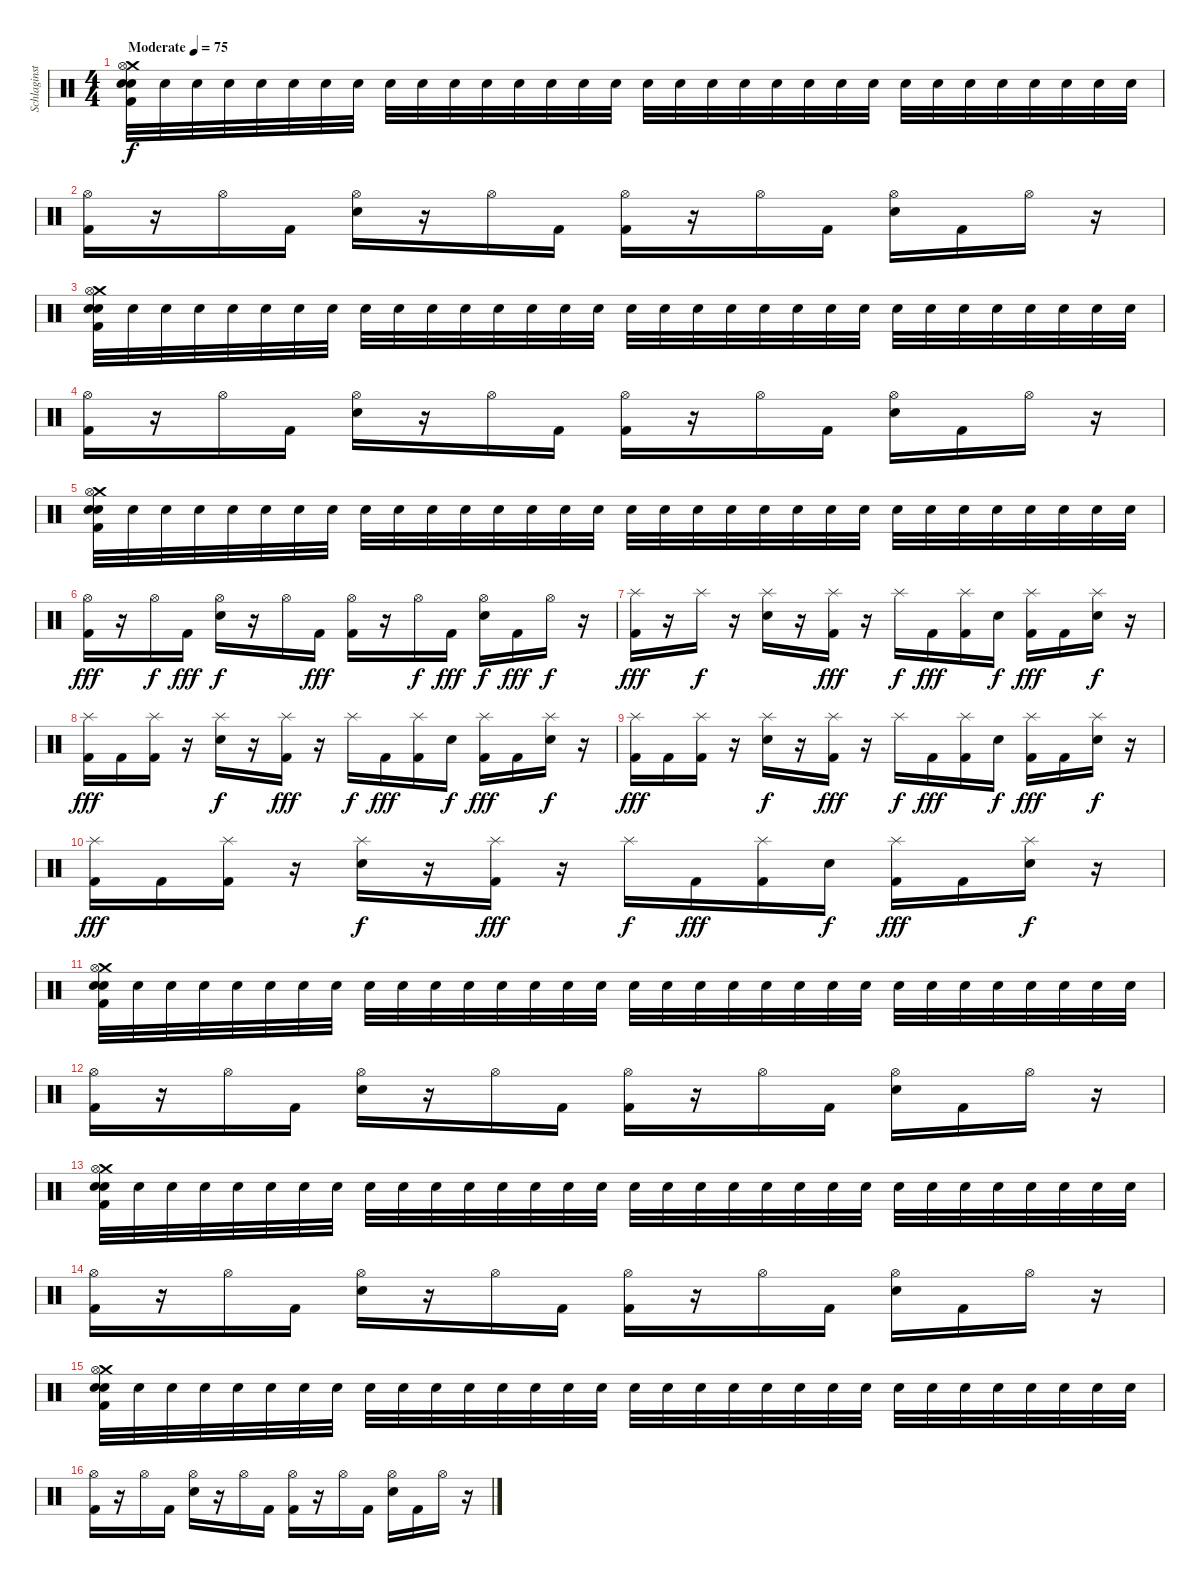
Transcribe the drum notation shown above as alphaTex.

\track ("Schlaginstrumente - Auswahl" "Schlaginst") {instrument percussion}
\staff {score}
\articulation defaults
\ts (4 4)
\tempo (75 "Moderate")
\clef neutral
\ks c
("Crash medium (hit)" "Hi-Hat (open)" "Electric Snare (hit)" "Kick (hit) 2" "Electric Snare (hit)").32{dy f} "Electric Snare (hit)".32 "Electric Snare (hit)".32 "Electric Snare (hit)".32 "Electric Snare (hit)".32 "Electric Snare (hit)".32 "Electric Snare (hit)".32 "Electric Snare (hit)".32 "Electric Snare (hit)".32 "Electric Snare (hit)".32 "Electric Snare (hit)".32 "Electric Snare (hit)".32 "Electric Snare (hit)".32 "Electric Snare (hit)".32 "Electric Snare (hit)".32 "Electric Snare (hit)".32 "Electric Snare (hit)".32 "Electric Snare (hit)".32 "Electric Snare (hit)".32 "Electric Snare (hit)".32 "Electric Snare (hit)".32 "Electric Snare (hit)".32 "Electric Snare (hit)".32 "Electric Snare (hit)".32 "Electric Snare (hit)".32 "Electric Snare (hit)".32 "Electric Snare (hit)".32 "Electric Snare (hit)".32 "Electric Snare (hit)".32 "Electric Snare (hit)".32 "Electric Snare (hit)".32 "Electric Snare (hit)".32 |
("Hi-Hat (open)" "Kick (hit) 2").16 r.16 "Hi-Hat (open)".16 "Kick (hit) 2".16 ("Hi-Hat (open)" "Electric Snare (hit)").16 r.16 "Hi-Hat (open)".16 "Kick (hit) 2".16 ("Hi-Hat (open)" "Kick (hit) 2").16 r.16 "Hi-Hat (open)".16 "Kick (hit) 2".16 ("Hi-Hat (open)" "Electric Snare (hit)").16 "Kick (hit) 2".16 "Hi-Hat (open)".16 r.16 |
("Crash medium (hit)" "Hi-Hat (open)" "Electric Snare (hit)" "Kick (hit) 2" "Electric Snare (hit)").32 "Electric Snare (hit)".32 "Electric Snare (hit)".32 "Electric Snare (hit)".32 "Electric Snare (hit)".32 "Electric Snare (hit)".32 "Electric Snare (hit)".32 "Electric Snare (hit)".32 "Electric Snare (hit)".32 "Electric Snare (hit)".32 "Electric Snare (hit)".32 "Electric Snare (hit)".32 "Electric Snare (hit)".32 "Electric Snare (hit)".32 "Electric Snare (hit)".32 "Electric Snare (hit)".32 "Electric Snare (hit)".32 "Electric Snare (hit)".32 "Electric Snare (hit)".32 "Electric Snare (hit)".32 "Electric Snare (hit)".32 "Electric Snare (hit)".32 "Electric Snare (hit)".32 "Electric Snare (hit)".32 "Electric Snare (hit)".32 "Electric Snare (hit)".32 "Electric Snare (hit)".32 "Electric Snare (hit)".32 "Electric Snare (hit)".32 "Electric Snare (hit)".32 "Electric Snare (hit)".32 "Electric Snare (hit)".32 |
("Hi-Hat (open)" "Kick (hit) 2").16 r.16 "Hi-Hat (open)".16 "Kick (hit) 2".16 ("Hi-Hat (open)" "Electric Snare (hit)").16 r.16 "Hi-Hat (open)".16 "Kick (hit) 2".16 ("Hi-Hat (open)" "Kick (hit) 2").16 r.16 "Hi-Hat (open)".16 "Kick (hit) 2".16 ("Hi-Hat (open)" "Electric Snare (hit)").16 "Kick (hit) 2".16 "Hi-Hat (open)".16 r.16 |
("Crash medium (hit)" "Hi-Hat (open)" "Electric Snare (hit)" "Kick (hit) 2" "Electric Snare (hit)").32 "Electric Snare (hit)".32 "Electric Snare (hit)".32 "Electric Snare (hit)".32 "Electric Snare (hit)".32 "Electric Snare (hit)".32 "Electric Snare (hit)".32 "Electric Snare (hit)".32 "Electric Snare (hit)".32 "Electric Snare (hit)".32 "Electric Snare (hit)".32 "Electric Snare (hit)".32 "Electric Snare (hit)".32 "Electric Snare (hit)".32 "Electric Snare (hit)".32 "Electric Snare (hit)".32 "Electric Snare (hit)".32 "Electric Snare (hit)".32 "Electric Snare (hit)".32 "Electric Snare (hit)".32 "Electric Snare (hit)".32 "Electric Snare (hit)".32 "Electric Snare (hit)".32 "Electric Snare (hit)".32 "Electric Snare (hit)".32 "Electric Snare (hit)".32 "Electric Snare (hit)".32 "Electric Snare (hit)".32 "Electric Snare (hit)".32 "Electric Snare (hit)".32 "Electric Snare (hit)".32 "Electric Snare (hit)".32 |
("Hi-Hat (open)" "Kick (hit) 2").16{dy fff} r.16 "Hi-Hat (open)".16{dy f} "Kick (hit) 2".16{dy fff} ("Hi-Hat (open)" "Electric Snare (hit)").16{dy f} r.16 "Hi-Hat (open)".16 "Kick (hit) 2".16{dy fff} ("Hi-Hat (open)" "Kick (hit) 2").16 r.16 "Hi-Hat (open)".16{dy f} "Kick (hit) 2".16{dy fff} ("Hi-Hat (open)" "Electric Snare (hit)").16{dy f} "Kick (hit) 2".16{dy fff} "Hi-Hat (open)".16{dy f} r.16 |
("Splash (hit)" "Kick (hit) 2").16{dy fff} r.16 "Splash (hit)".16{dy f} r.16 ("Splash (hit)" "Electric Snare (hit)").16 r.16 ("Splash (hit)" "Kick (hit) 2").16{dy fff} r.16 "Splash (hit)".16{dy f} "Kick (hit) 2".16{dy fff} ("Splash (hit)" "Kick (hit) 2").16 "Electric Snare (hit)".16{dy f} ("Splash (hit)" "Kick (hit) 2").16{dy fff} "Kick (hit) 2".16 ("Splash (hit)" "Electric Snare (hit)").16{dy f} r.16 |
("Splash (hit)" "Kick (hit) 2").16{dy fff} "Kick (hit) 2".16 ("Splash (hit)" "Kick (hit) 2").16 r.16 ("Splash (hit)" "Electric Snare (hit)").16{dy f} r.16 ("Splash (hit)" "Kick (hit) 2").16{dy fff} r.16 "Splash (hit)".16{dy f} "Kick (hit) 2".16{dy fff} ("Splash (hit)" "Kick (hit) 2").16 "Electric Snare (hit)".16{dy f} ("Splash (hit)" "Kick (hit) 2").16{dy fff} "Kick (hit) 2".16 ("Splash (hit)" "Electric Snare (hit)").16{dy f} r.16 |
("Splash (hit)" "Kick (hit) 2").16{dy fff} "Kick (hit) 2".16 ("Splash (hit)" "Kick (hit) 2").16 r.16 ("Splash (hit)" "Electric Snare (hit)").16{dy f} r.16 ("Splash (hit)" "Kick (hit) 2").16{dy fff} r.16 "Splash (hit)".16{dy f} "Kick (hit) 2".16{dy fff} ("Splash (hit)" "Kick (hit) 2").16 "Electric Snare (hit)".16{dy f} ("Splash (hit)" "Kick (hit) 2").16{dy fff} "Kick (hit) 2".16 ("Splash (hit)" "Electric Snare (hit)").16{dy f} r.16 |
("Splash (hit)" "Kick (hit) 2").16{dy fff} "Kick (hit) 2".16 ("Splash (hit)" "Kick (hit) 2").16 r.16 ("Splash (hit)" "Electric Snare (hit)").16{dy f} r.16 ("Splash (hit)" "Kick (hit) 2").16{dy fff} r.16 "Splash (hit)".16{dy f} "Kick (hit) 2".16{dy fff} ("Splash (hit)" "Kick (hit) 2").16 "Electric Snare (hit)".16{dy f} ("Splash (hit)" "Kick (hit) 2").16{dy fff} "Kick (hit) 2".16 ("Splash (hit)" "Electric Snare (hit)").16{dy f} r.16 |
("Crash medium (hit)" "Hi-Hat (open)" "Electric Snare (hit)" "Kick (hit) 2" "Electric Snare (hit)").32 "Electric Snare (hit)".32 "Electric Snare (hit)".32 "Electric Snare (hit)".32 "Electric Snare (hit)".32 "Electric Snare (hit)".32 "Electric Snare (hit)".32 "Electric Snare (hit)".32 "Electric Snare (hit)".32 "Electric Snare (hit)".32 "Electric Snare (hit)".32 "Electric Snare (hit)".32 "Electric Snare (hit)".32 "Electric Snare (hit)".32 "Electric Snare (hit)".32 "Electric Snare (hit)".32 "Electric Snare (hit)".32 "Electric Snare (hit)".32 "Electric Snare (hit)".32 "Electric Snare (hit)".32 "Electric Snare (hit)".32 "Electric Snare (hit)".32 "Electric Snare (hit)".32 "Electric Snare (hit)".32 "Electric Snare (hit)".32 "Electric Snare (hit)".32 "Electric Snare (hit)".32 "Electric Snare (hit)".32 "Electric Snare (hit)".32 "Electric Snare (hit)".32 "Electric Snare (hit)".32 "Electric Snare (hit)".32 |
("Hi-Hat (open)" "Kick (hit) 2").16 r.16 "Hi-Hat (open)".16 "Kick (hit) 2".16 ("Hi-Hat (open)" "Electric Snare (hit)").16 r.16 "Hi-Hat (open)".16 "Kick (hit) 2".16 ("Hi-Hat (open)" "Kick (hit) 2").16 r.16 "Hi-Hat (open)".16 "Kick (hit) 2".16 ("Hi-Hat (open)" "Electric Snare (hit)").16 "Kick (hit) 2".16 "Hi-Hat (open)".16 r.16 |
("Crash medium (hit)" "Hi-Hat (open)" "Electric Snare (hit)" "Kick (hit) 2" "Electric Snare (hit)").32 "Electric Snare (hit)".32 "Electric Snare (hit)".32 "Electric Snare (hit)".32 "Electric Snare (hit)".32 "Electric Snare (hit)".32 "Electric Snare (hit)".32 "Electric Snare (hit)".32 "Electric Snare (hit)".32 "Electric Snare (hit)".32 "Electric Snare (hit)".32 "Electric Snare (hit)".32 "Electric Snare (hit)".32 "Electric Snare (hit)".32 "Electric Snare (hit)".32 "Electric Snare (hit)".32 "Electric Snare (hit)".32 "Electric Snare (hit)".32 "Electric Snare (hit)".32 "Electric Snare (hit)".32 "Electric Snare (hit)".32 "Electric Snare (hit)".32 "Electric Snare (hit)".32 "Electric Snare (hit)".32 "Electric Snare (hit)".32 "Electric Snare (hit)".32 "Electric Snare (hit)".32 "Electric Snare (hit)".32 "Electric Snare (hit)".32 "Electric Snare (hit)".32 "Electric Snare (hit)".32 "Electric Snare (hit)".32 |
("Hi-Hat (open)" "Kick (hit) 2").16 r.16 "Hi-Hat (open)".16 "Kick (hit) 2".16 ("Hi-Hat (open)" "Electric Snare (hit)").16 r.16 "Hi-Hat (open)".16 "Kick (hit) 2".16 ("Hi-Hat (open)" "Kick (hit) 2").16 r.16 "Hi-Hat (open)".16 "Kick (hit) 2".16 ("Hi-Hat (open)" "Electric Snare (hit)").16 "Kick (hit) 2".16 "Hi-Hat (open)".16 r.16 |
("Crash medium (hit)" "Hi-Hat (open)" "Electric Snare (hit)" "Kick (hit) 2" "Electric Snare (hit)").32 "Electric Snare (hit)".32 "Electric Snare (hit)".32 "Electric Snare (hit)".32 "Electric Snare (hit)".32 "Electric Snare (hit)".32 "Electric Snare (hit)".32 "Electric Snare (hit)".32 "Electric Snare (hit)".32 "Electric Snare (hit)".32 "Electric Snare (hit)".32 "Electric Snare (hit)".32 "Electric Snare (hit)".32 "Electric Snare (hit)".32 "Electric Snare (hit)".32 "Electric Snare (hit)".32 "Electric Snare (hit)".32 "Electric Snare (hit)".32 "Electric Snare (hit)".32 "Electric Snare (hit)".32 "Electric Snare (hit)".32 "Electric Snare (hit)".32 "Electric Snare (hit)".32 "Electric Snare (hit)".32 "Electric Snare (hit)".32 "Electric Snare (hit)".32 "Electric Snare (hit)".32 "Electric Snare (hit)".32 "Electric Snare (hit)".32 "Electric Snare (hit)".32 "Electric Snare (hit)".32 "Electric Snare (hit)".32 |
("Hi-Hat (open)" "Kick (hit) 2").16 r.16 "Hi-Hat (open)".16 "Kick (hit) 2".16 ("Hi-Hat (open)" "Electric Snare (hit)").16 r.16 "Hi-Hat (open)".16 "Kick (hit) 2".16 ("Hi-Hat (open)" "Kick (hit) 2").16 r.16 "Hi-Hat (open)".16 "Kick (hit) 2".16 ("Hi-Hat (open)" "Electric Snare (hit)").16 "Kick (hit) 2".16 "Hi-Hat (open)".16 r.16
